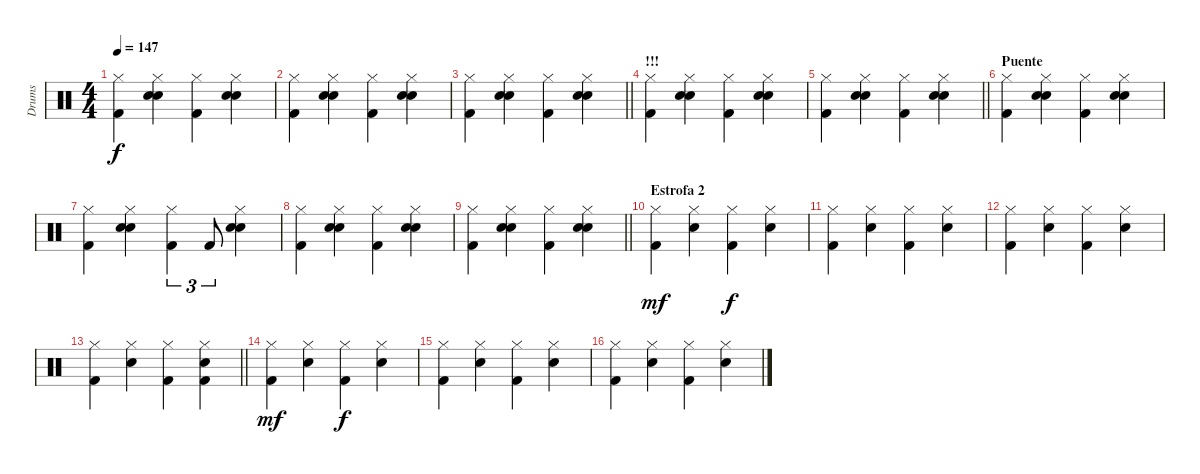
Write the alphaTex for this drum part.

\track ("Drums" "Drums") {instrument percussion}
\staff {score}
\articulation defaults
\ts (4 4)
\tempo 147
\clef neutral
\ks c
("Hi-Hat (closed)" "Kick (hit) 2").4{dy f} ("Hi-Hat (closed)" "Electric Snare (hit)" "Hand Clap (hit)").4 ("Hi-Hat (closed)" "Kick (hit) 2").4 ("Hi-Hat (closed)" "Electric Snare (hit)" "Hand Clap (hit)").4 |
("Hi-Hat (closed)" "Kick (hit) 2").4 ("Hi-Hat (closed)" "Electric Snare (hit)" "Hand Clap (hit)").4 ("Hi-Hat (closed)" "Kick (hit) 2").4 ("Hi-Hat (closed)" "Electric Snare (hit)" "Hand Clap (hit)").4 |
\barLineRight lightlight
("Hi-Hat (closed)" "Kick (hit) 2").4 ("Hi-Hat (closed)" "Electric Snare (hit)" "Hand Clap (hit)").4 ("Hi-Hat (closed)" "Kick (hit) 2").4 ("Hi-Hat (closed)" "Electric Snare (hit)" "Hand Clap (hit)").4 |
\section ("" "!!!")
("Hi-Hat (closed)" "Kick (hit) 2").4 ("Hi-Hat (closed)" "Electric Snare (hit)" "Hand Clap (hit)").4 ("Hi-Hat (closed)" "Kick (hit) 2").4 ("Hi-Hat (closed)" "Electric Snare (hit)" "Hand Clap (hit)").4 |
\barLineRight lightlight
("Hi-Hat (closed)" "Kick (hit) 2").4 ("Hi-Hat (closed)" "Electric Snare (hit)" "Hand Clap (hit)").4 ("Hi-Hat (closed)" "Kick (hit) 2").4 ("Hi-Hat (closed)" "Electric Snare (hit)" "Hand Clap (hit)").4 |
\section ("" "Puente")
("Hi-Hat (closed)" "Kick (hit) 2").4 ("Hi-Hat (closed)" "Electric Snare (hit)" "Hand Clap (hit)").4 ("Hi-Hat (closed)" "Kick (hit) 2").4 ("Hi-Hat (closed)" "Electric Snare (hit)" "Hand Clap (hit)").4 |
("Hi-Hat (closed)" "Kick (hit) 2").4 ("Hi-Hat (closed)" "Electric Snare (hit)" "Hand Clap (hit)").4 ("Hi-Hat (closed)" "Kick (hit) 2").4{tu (3 2)} "Kick (hit) 2".8{tu (3 2)} ("Hi-Hat (closed)" "Electric Snare (hit)" "Hand Clap (hit)").4 |
("Hi-Hat (closed)" "Kick (hit) 2").4 ("Hi-Hat (closed)" "Electric Snare (hit)" "Hand Clap (hit)").4 ("Hi-Hat (closed)" "Kick (hit) 2").4 ("Hi-Hat (closed)" "Electric Snare (hit)" "Hand Clap (hit)").4 |
\barLineRight lightlight
("Hi-Hat (closed)" "Kick (hit) 2").4 ("Hi-Hat (closed)" "Electric Snare (hit)" "Hand Clap (hit)").4 ("Hi-Hat (closed)" "Kick (hit) 2").4 ("Hi-Hat (closed)" "Electric Snare (hit)" "Hand Clap (hit)").4 |
\section ("" "Estrofa 2")
("Hi-Hat (closed)" "Kick (hit) 2").4{dy mf} ("Hi-Hat (closed)" "Electric Snare (hit)").4 ("Hi-Hat (closed)" "Kick (hit) 2").4{dy f} ("Hi-Hat (closed)" "Electric Snare (hit)").4 |
("Hi-Hat (closed)" "Kick (hit) 2").4 ("Hi-Hat (closed)" "Electric Snare (hit)").4 ("Hi-Hat (closed)" "Kick (hit) 2").4 ("Hi-Hat (closed)" "Electric Snare (hit)").4 |
("Hi-Hat (closed)" "Kick (hit) 2").4 ("Hi-Hat (closed)" "Electric Snare (hit)").4 ("Hi-Hat (closed)" "Kick (hit) 2").4 ("Hi-Hat (closed)" "Electric Snare (hit)").4 |
\barLineRight lightlight
("Hi-Hat (closed)" "Kick (hit) 2").4 ("Hi-Hat (closed)" "Electric Snare (hit)").4 ("Hi-Hat (closed)" "Kick (hit) 2").4 ("Hi-Hat (closed)" "Electric Snare (hit)" "Kick (hit) 2").4 |
("Hi-Hat (closed)" "Kick (hit) 2").4{dy mf} ("Hi-Hat (closed)" "Electric Snare (hit)").4 ("Hi-Hat (closed)" "Kick (hit) 2").4{dy f} ("Hi-Hat (closed)" "Electric Snare (hit)").4 |
("Hi-Hat (closed)" "Kick (hit) 2").4 ("Hi-Hat (closed)" "Electric Snare (hit)").4 ("Hi-Hat (closed)" "Kick (hit) 2").4 ("Hi-Hat (closed)" "Electric Snare (hit)").4 |
("Hi-Hat (closed)" "Kick (hit) 2").4 ("Hi-Hat (closed)" "Electric Snare (hit)").4 ("Hi-Hat (closed)" "Kick (hit) 2").4 ("Hi-Hat (closed)" "Electric Snare (hit)").4
